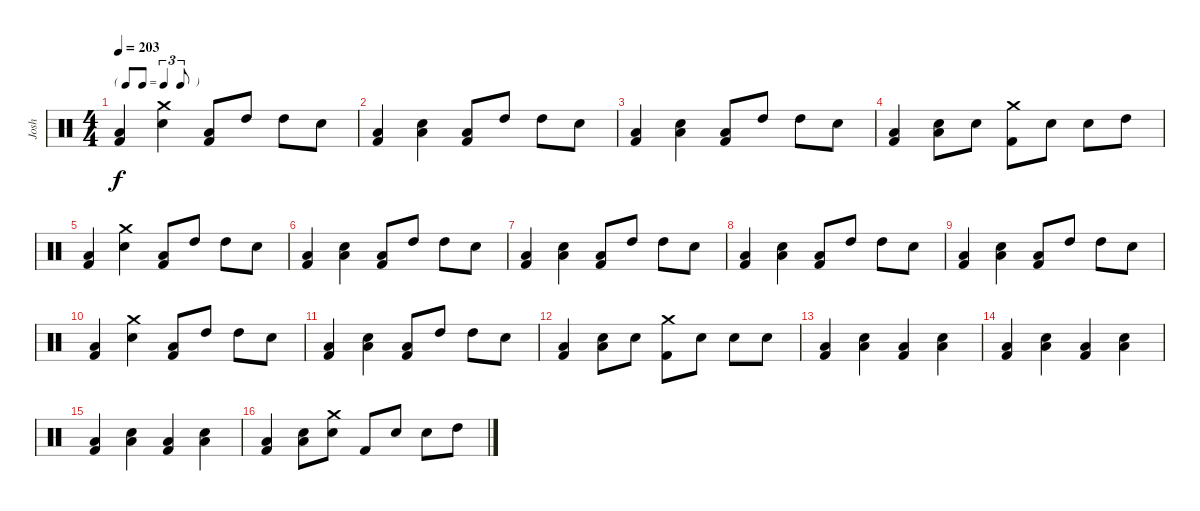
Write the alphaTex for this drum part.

\track ("Josh" "Josh") {instrument percussion}
\staff {score}
\articulation defaults
\ts (4 4)
\tf triplet8th
\tempo 203
\clef neutral
\ks c
("Low Tom (hit)" "Kick (hit) 2").4{dy f} ("Crash medium (hit)" "Electric Snare (hit)").4 ("Low Tom (hit)" "Kick (hit) 2").8 "High Tom (hit)".8 "High Tom (hit)".8 "Electric Snare (hit)".8 |
("Low Tom (hit)" "Kick (hit) 2").4 ("Low Tom (hit)" "Electric Snare (hit)").4 ("Low Tom (hit)" "Kick (hit) 2").8 "High Tom (hit)".8 "High Tom (hit)".8 "Electric Snare (hit)".8 |
("Low Tom (hit)" "Kick (hit) 2").4 ("Low Tom (hit)" "Electric Snare (hit)").4 ("Low Tom (hit)" "Kick (hit) 2").8 "High Tom (hit)".8 "High Tom (hit)".8 "Electric Snare (hit)".8 |
("Low Tom (hit)" "Kick (hit) 2").4 ("Low Tom (hit)" "Electric Snare (hit)").8 "Electric Snare (hit)".8 ("Crash medium (hit)" "Kick (hit) 2").8 "Electric Snare (hit)".8 "Electric Snare (hit)".8 "High Tom (hit)".8 |
("Low Tom (hit)" "Kick (hit) 2").4 ("Crash medium (hit)" "Electric Snare (hit)").4 ("Low Tom (hit)" "Kick (hit) 2").8 "High Tom (hit)".8 "High Tom (hit)".8 "Electric Snare (hit)".8 |
("Low Tom (hit)" "Kick (hit) 2").4 ("Low Tom (hit)" "Electric Snare (hit)").4 ("Low Tom (hit)" "Kick (hit) 2").8 "High Tom (hit)".8 "High Tom (hit)".8 "Electric Snare (hit)".8 |
("Low Tom (hit)" "Kick (hit) 2").4 ("Low Tom (hit)" "Electric Snare (hit)").4 ("Low Tom (hit)" "Kick (hit) 2").8 "High Tom (hit)".8 "High Tom (hit)".8 "Electric Snare (hit)".8 |
("Low Tom (hit)" "Kick (hit) 2").4 ("Low Tom (hit)" "Electric Snare (hit)").4 ("Low Tom (hit)" "Kick (hit) 2").8 "High Tom (hit)".8 "High Tom (hit)".8 "Electric Snare (hit)".8 |
("Low Tom (hit)" "Kick (hit) 2").4 ("Low Tom (hit)" "Electric Snare (hit)").4 ("Low Tom (hit)" "Kick (hit) 2").8 "High Tom (hit)".8 "High Tom (hit)".8 "Electric Snare (hit)".8 |
("Low Tom (hit)" "Kick (hit) 2").4 ("Crash medium (hit)" "Electric Snare (hit)").4 ("Low Tom (hit)" "Kick (hit) 2").8 "High Tom (hit)".8 "High Tom (hit)".8 "Electric Snare (hit)".8 |
("Low Tom (hit)" "Kick (hit) 2").4 ("Low Tom (hit)" "Electric Snare (hit)").4 ("Low Tom (hit)" "Kick (hit) 2").8 "High Tom (hit)".8 "High Tom (hit)".8 "Electric Snare (hit)".8 |
("Low Tom (hit)" "Kick (hit) 2").4 ("Low Tom (hit)" "Electric Snare (hit)").8 "Electric Snare (hit)".8 ("Crash medium (hit)" "Kick (hit) 2").8 "Electric Snare (hit)".8 "Electric Snare (hit)".8 "Electric Snare (hit)".8 |
("Low Tom (hit)" "Kick (hit) 2").4 ("Low Tom (hit)" "Electric Snare (hit)").4 ("Low Tom (hit)" "Kick (hit) 2").4 ("Low Tom (hit)" "Electric Snare (hit)").4 |
("Low Tom (hit)" "Kick (hit) 2").4 ("Low Tom (hit)" "Electric Snare (hit)").4 ("Low Tom (hit)" "Kick (hit) 2").4 ("Low Tom (hit)" "Electric Snare (hit)").4 |
("Low Tom (hit)" "Kick (hit) 2").4 ("Low Tom (hit)" "Electric Snare (hit)").4 ("Low Tom (hit)" "Kick (hit) 2").4 ("Low Tom (hit)" "Electric Snare (hit)").4 |
("Low Tom (hit)" "Kick (hit) 2").4 ("Low Tom (hit)" "Electric Snare (hit)").8 ("Crash medium (hit)" "Electric Snare (hit)").8 "Kick (hit) 2".8 "Electric Snare (hit)".8 "Electric Snare (hit)".8 "High Tom (hit)".8
